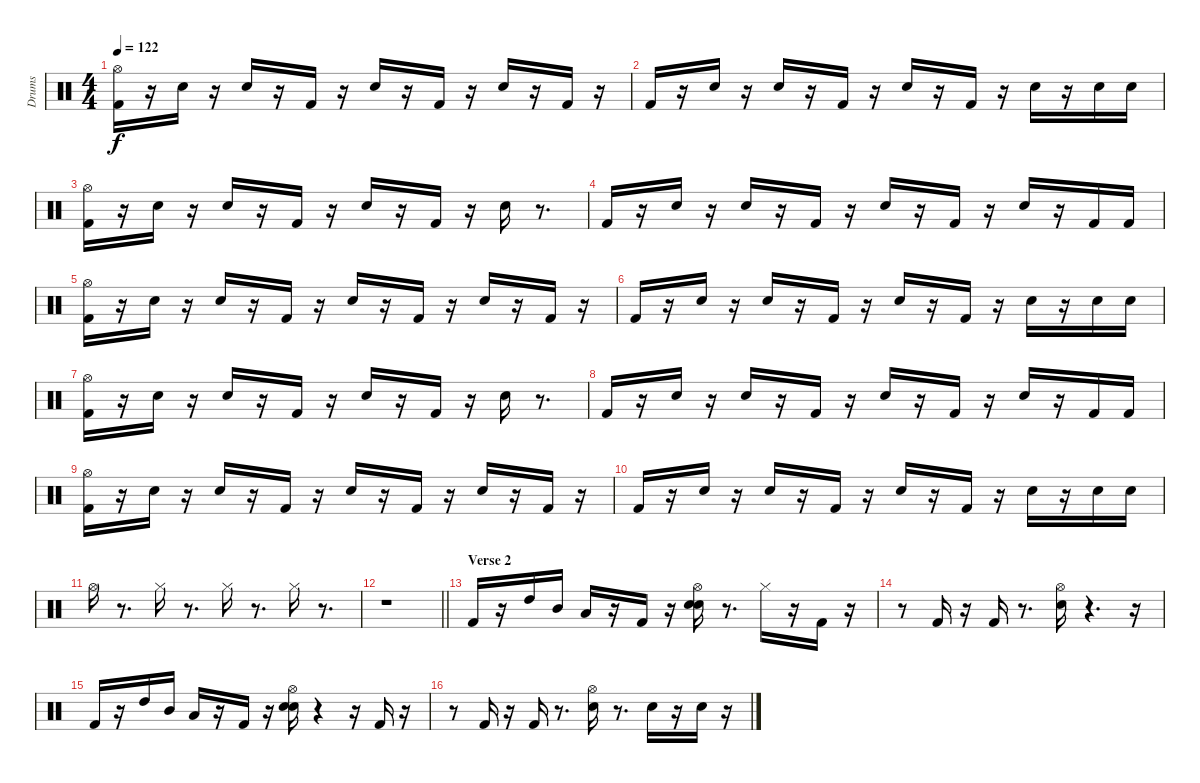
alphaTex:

\track ("Drums" "Drums") {instrument percussion}
\staff
\articulation defaults
\ts (4 4)
\tempo 122
\clef neutral
\ks c
("Hi-Hat (open)" "Kick (hit) 2").16{dy f} r.16 "Snare (hit) 2".16 r.16 "Snare (hit) 2".16 r.16 "Kick (hit) 2".16 r.16 "Snare (hit) 2".16 r.16 "Kick (hit) 2".16 r.16 "Snare (hit) 2".16 r.16 "Kick (hit) 2".16 r.16 |
"Kick (hit) 2".16 r.16 "Snare (hit) 2".16 r.16 "Snare (hit) 2".16 r.16 "Kick (hit) 2".16 r.16 "Snare (hit) 2".16 r.16 "Kick (hit) 2".16 r.16 "Snare (hit) 2".16 r.16 "Snare (hit) 2".16 "Snare (hit) 2".16 |
("Hi-Hat (open)" "Kick (hit) 2").16 r.16 "Snare (hit) 2".16 r.16 "Snare (hit) 2".16 r.16 "Kick (hit) 2".16 r.16 "Snare (hit) 2".16 r.16 "Kick (hit) 2".16 r.16 "Snare (hit) 2".16 r.8{d} |
"Kick (hit) 2".16 r.16 "Snare (hit) 2".16 r.16 "Snare (hit) 2".16 r.16 "Kick (hit) 2".16 r.16 "Snare (hit) 2".16 r.16 "Kick (hit) 2".16 r.16 "Snare (hit) 2".16 r.16 "Kick (hit) 2".16 "Kick (hit) 2".16 |
("Hi-Hat (open)" "Kick (hit) 2").16 r.16 "Snare (hit) 2".16 r.16 "Snare (hit) 2".16 r.16 "Kick (hit) 2".16 r.16 "Snare (hit) 2".16 r.16 "Kick (hit) 2".16 r.16 "Snare (hit) 2".16 r.16 "Kick (hit) 2".16 r.16 |
"Kick (hit) 2".16 r.16 "Snare (hit) 2".16 r.16 "Snare (hit) 2".16 r.16 "Kick (hit) 2".16 r.16 "Snare (hit) 2".16 r.16 "Kick (hit) 2".16 r.16 "Snare (hit) 2".16 r.16 "Snare (hit) 2".16 "Snare (hit) 2".16 |
("Hi-Hat (open)" "Kick (hit) 2").16 r.16 "Snare (hit) 2".16 r.16 "Snare (hit) 2".16 r.16 "Kick (hit) 2".16 r.16 "Snare (hit) 2".16 r.16 "Kick (hit) 2".16 r.16 "Snare (hit) 2".16 r.8{d} |
"Kick (hit) 2".16 r.16 "Snare (hit) 2".16 r.16 "Snare (hit) 2".16 r.16 "Kick (hit) 2".16 r.16 "Snare (hit) 2".16 r.16 "Kick (hit) 2".16 r.16 "Snare (hit) 2".16 r.16 "Kick (hit) 2".16 "Kick (hit) 2".16 |
("Hi-Hat (open)" "Kick (hit) 2").16 r.16 "Snare (hit) 2".16 r.16 "Snare (hit) 2".16 r.16 "Kick (hit) 2".16 r.16 "Snare (hit) 2".16 r.16 "Kick (hit) 2".16 r.16 "Snare (hit) 2".16 r.16 "Kick (hit) 2".16 r.16 |
"Kick (hit) 2".16 r.16 "Snare (hit) 2".16 r.16 "Snare (hit) 2".16 r.16 "Kick (hit) 2".16 r.16 "Snare (hit) 2".16 r.16 "Kick (hit) 2".16 r.16 "Snare (hit) 2".16 r.16 "Snare (hit) 2".16 "Snare (hit) 2".16 |
"Hi-Hat (open)".16 r.8{d} "Hi-Hat (closed)".16 r.8{d} "Hi-Hat (closed)".16 r.8{d} "Hi-Hat (closed)".16 r.8{d} |
\barLineRight lightlight
r.1 |
\section ("" "Verse 2")
"Kick (hit) 2".16 r.16 "High Tom (hit)".16 "Mid Tom (hit)".16 "Low Tom (hit)".16 r.16 "Kick (hit) 2".16 r.16 ("Electric Snare (hit)" "Hi-Hat (open)" "Snare (hit) 2").16 r.8{d} "Hi-Hat (closed)".16 r.16 "Kick (hit) 2".16 r.16 |
r.8 "Kick (hit) 2".16 r.16 "Kick (hit) 2".16 r.8{d} ("Hi-Hat (open)" "Snare (hit) 2").16 r.4{d} r.16 |
"Kick (hit) 2".16 r.16 "High Tom (hit)".16 "Mid Tom (hit)".16 "Low Tom (hit)".16 r.16 "Kick (hit) 2".16 r.16 ("Hi-Hat (open)" "Electric Snare (hit)" "Snare (hit) 2").16 r.4 r.16 "Kick (hit) 2".16 r.16 |
r.8 "Kick (hit) 2".16 r.16 "Kick (hit) 2".16 r.8{d} ("Hi-Hat (open)" "Snare (hit) 2").16 r.8{d} "Snare (hit) 2".16 r.16 "Snare (hit) 2".16 r.16
